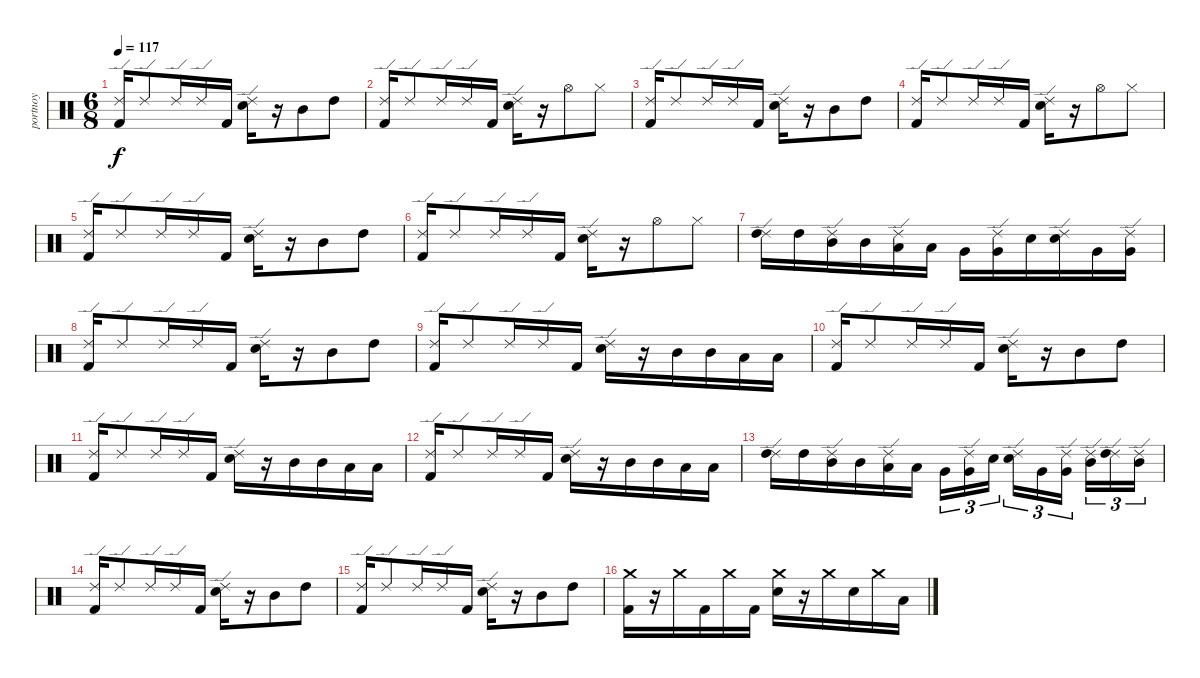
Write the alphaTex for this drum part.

\track ("portnoy" "portnoy") {instrument percussion}
\staff {score}
\articulation defaults
\ts (6 8)
\tempo 117
\clef neutral
\ks c
("Ride (edge) 2" "Kick (hit) 2").16{dy f} "Ride (edge) 2".8 "Ride (edge) 2".16 "Ride (edge) 2".16 "Kick (hit) 2".16 ("Ride (edge) 2" "Electric Snare (hit)").16 r.16 "Mid Tom (hit)".8 "High Tom (hit)".8 |
("Ride (edge) 2" "Kick (hit) 2").16 "Ride (edge) 2".8 "Ride (edge) 2".16 "Ride (edge) 2".16 "Kick (hit) 2".16 ("Ride (edge) 2" "Electric Snare (hit)").16 r.16 "Hi-Hat (open)".8 "Hi-Hat (closed)".8 |
("Ride (edge) 2" "Kick (hit) 2").16 "Ride (edge) 2".8 "Ride (edge) 2".16 "Ride (edge) 2".16 "Kick (hit) 2".16 ("Ride (edge) 2" "Electric Snare (hit)").16 r.16 "Mid Tom (hit)".8 "High Tom (hit)".8 |
("Ride (edge) 2" "Kick (hit) 2").16 "Ride (edge) 2".8 "Ride (edge) 2".16 "Ride (edge) 2".16 "Kick (hit) 2".16 ("Ride (edge) 2" "Electric Snare (hit)").16 r.16 "Hi-Hat (open)".8 "Hi-Hat (closed)".8 |
("Ride (edge) 2" "Kick (hit) 2").16 "Ride (edge) 2".8 "Ride (edge) 2".16 "Ride (edge) 2".16 "Kick (hit) 2".16 ("Ride (edge) 2" "Electric Snare (hit)").16 r.16 "Mid Tom (hit)".8 "High Tom (hit)".8 |
("Ride (edge) 2" "Kick (hit) 2").16 "Ride (edge) 2".8 "Ride (edge) 2".16 "Ride (edge) 2".16 "Kick (hit) 2".16 ("Ride (edge) 2" "Electric Snare (hit)").16 r.16 "Hi-Hat (open)".8 "Hi-Hat (closed)".8 |
("Ride (edge) 2" "High Tom (hit)").16 "High Tom (hit)".16 ("Ride (edge) 2" "Mid Tom (hit)").16 "Mid Tom (hit)".16 ("Ride (edge) 2" "Low Tom (hit)").16 "Low Tom (hit)".16 "Very Low Tom (hit)".16 ("Ride (edge) 2" "Very Low Tom (hit)").16 "Electric Snare (hit)".16 ("Ride (edge) 2" "Electric Snare (hit)").16 "Very Low Tom (hit)".16 ("Ride (edge) 2" "Very Low Tom (hit)").16 |
("Ride (edge) 2" "Kick (hit) 2").16 "Ride (edge) 2".8 "Ride (edge) 2".16 "Ride (edge) 2".16 "Kick (hit) 2".16 ("Ride (edge) 2" "Electric Snare (hit)").16 r.16 "Mid Tom (hit)".8 "High Tom (hit)".8 |
("Ride (edge) 2" "Kick (hit) 2").16 "Ride (edge) 2".8 "Ride (edge) 2".16 "Ride (edge) 2".16 "Kick (hit) 2".16 ("Ride (edge) 2" "Electric Snare (hit)").16 r.16 "Mid Tom (hit)".16 "Mid Tom (hit)".16 "Low Tom (hit)".16 "Low Tom (hit)".16 |
("Ride (edge) 2" "Kick (hit) 2").16 "Ride (edge) 2".8 "Ride (edge) 2".16 "Ride (edge) 2".16 "Kick (hit) 2".16 ("Ride (edge) 2" "Electric Snare (hit)").16 r.16 "Mid Tom (hit)".8 "High Tom (hit)".8 |
("Ride (edge) 2" "Kick (hit) 2").16 "Ride (edge) 2".8 "Ride (edge) 2".16 "Ride (edge) 2".16 "Kick (hit) 2".16 ("Ride (edge) 2" "Electric Snare (hit)").16 r.16 "Mid Tom (hit)".16 "Mid Tom (hit)".16 "Low Tom (hit)".16 "Low Tom (hit)".16 |
("Ride (edge) 2" "Kick (hit) 2").16 "Ride (edge) 2".8 "Ride (edge) 2".16 "Ride (edge) 2".16 "Kick (hit) 2".16 ("Ride (edge) 2" "Electric Snare (hit)").16 r.16 "Mid Tom (hit)".16 "Mid Tom (hit)".16 "Low Tom (hit)".16 "Low Tom (hit)".16 |
("Ride (edge) 2" "High Tom (hit)").16 "High Tom (hit)".16 ("Ride (edge) 2" "Mid Tom (hit)").16 "Mid Tom (hit)".16 ("Ride (edge) 2" "Low Tom (hit)").16 "Low Tom (hit)".16 "Very Low Tom (hit)".16{tu (3 2)} ("Ride (edge) 2" "Very Low Tom (hit)").16{tu (3 2)} "Electric Snare (hit)".16{tu (3 2)} ("Ride (edge) 2" "Electric Snare (hit)").16{tu (3 2)} "Very Low Tom (hit)".16{tu (3 2)} ("Ride (edge) 2" "Very Low Tom (hit)").16{tu (3 2)} ("Ride (edge) 2" "Mid Tom (hit)").16{tu (3 2)} ("Ride (edge) 2" "High Tom (hit)").16{tu (3 2)} ("Ride (edge) 2" "Mid Tom (hit)").16{tu (3 2)} |
("Ride (edge) 2" "Kick (hit) 2").16 "Ride (edge) 2".8 "Ride (edge) 2".16 "Ride (edge) 2".16 "Kick (hit) 2".16 ("Ride (edge) 2" "Electric Snare (hit)").16 r.16 "Mid Tom (hit)".8 "High Tom (hit)".8 |
("Ride (edge) 2" "Kick (hit) 2").16 "Ride (edge) 2".8 "Ride (edge) 2".16 "Ride (edge) 2".16 "Kick (hit) 2".16 ("Ride (edge) 2" "Electric Snare (hit)").16 r.16 "Mid Tom (hit)".8 "High Tom (hit)".8 |
("Crash medium (hit)" "Kick (hit) 2").16 r.16 "Crash medium (hit)".16 "Kick (hit) 2".16 "Crash medium (hit)".16 "Kick (hit) 2".16 ("Crash medium (hit)" "Electric Snare (hit)").16 r.16 "Crash medium (hit)".16 "Electric Snare (hit)".16 "Crash medium (hit)".16 "Low Tom (hit)".16
